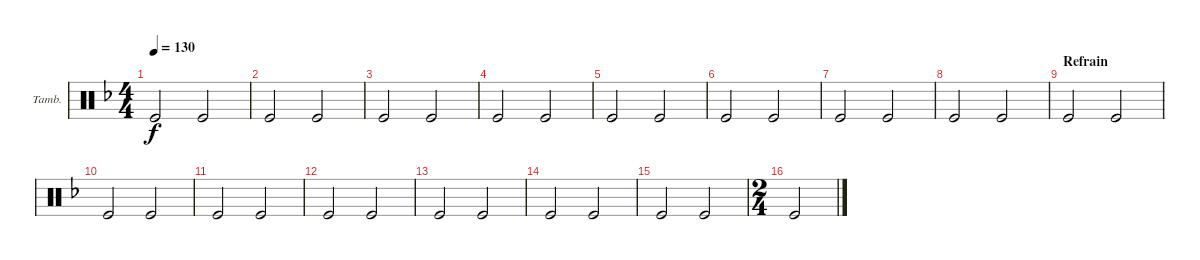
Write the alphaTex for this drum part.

\defaultSystemsLayout 4
\bracketExtendMode groupsimilarinstruments
\firstSystemTrackNameOrientation horizontal
\otherSystemsTrackNameOrientation horizontal
\track ("Tambourine" "Tamb.") {instrument percussion}
\staff {score}
\articulation defaults
\ts (4 4)
\tempo 130
\clef neutral
\ks dminor "Kick (hit)".2{dy f} "Kick (hit)".2
|
"Kick (hit)".2 "Kick (hit)".2 |
"Kick (hit)".2 "Kick (hit)".2 |
"Kick (hit)".2 "Kick (hit)".2 |
"Kick (hit)".2 "Kick (hit)".2 |
"Kick (hit)".2 "Kick (hit)".2 |
"Kick (hit)".2 "Kick (hit)".2 |
"Kick (hit)".2 "Kick (hit)".2 |
\section ("" "Refrain")
"Kick (hit)".2 "Kick (hit)".2 |
"Kick (hit)".2 "Kick (hit)".2 |
"Kick (hit)".2 "Kick (hit)".2 |
"Kick (hit)".2 "Kick (hit)".2 |
"Kick (hit)".2 "Kick (hit)".2 |
"Kick (hit)".2 "Kick (hit)".2 |
"Kick (hit)".2 "Kick (hit)".2 |
\ts (2 4)
"Kick (hit)".2
